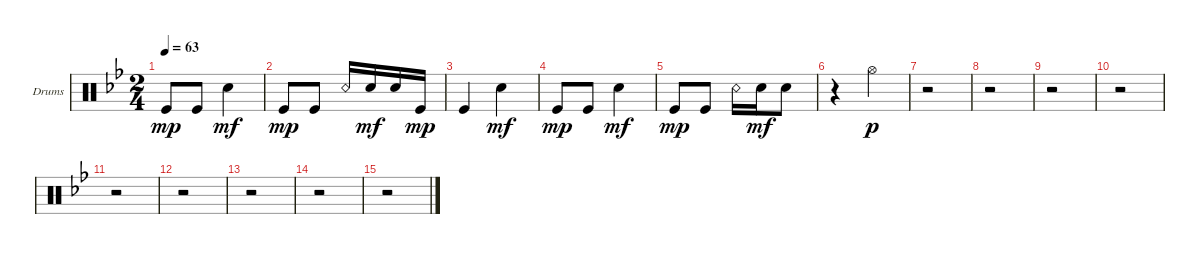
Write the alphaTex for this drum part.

\defaultSystemsLayout 4
\bracketExtendMode groupsimilarinstruments
\firstSystemTrackNameOrientation horizontal
\otherSystemsTrackNameOrientation horizontal
\track ("Drumkit" "Drums") {instrument percussion}
\staff {score}
\articulation defaults
\ts (2 4)
\tempo 63
\clef neutral
\ks bb "Kick (hit)".8{dy mp} "Kick (hit)".8 "Snare (hit) 2".4{dy mf}
|
"Kick (hit)".8{dy mp} "Kick (hit)".8 "Snare (rim shot)".16 "Snare (hit) 2".16{dy mf} "Snare (hit) 2".16 "Kick (hit)".16{dy mp} |
"Kick (hit)".4 "Snare (hit) 2".4{dy mf} |
"Kick (hit)".8{dy mp} "Kick (hit)".8 "Snare (hit) 2".4{dy mf} |
"Kick (hit)".8{dy mp} "Kick (hit)".8 "Snare (rim shot)".16 "Snare (hit) 2".16{dy mf} "Snare (hit) 2".8 |
r.4 "Hi-Hat (open)".4{dy p} |
r.2 |
r.2 |
r.2 |
r.2 |
r.2 |
r.2 |
r.2 |
r.2 |
r.2
